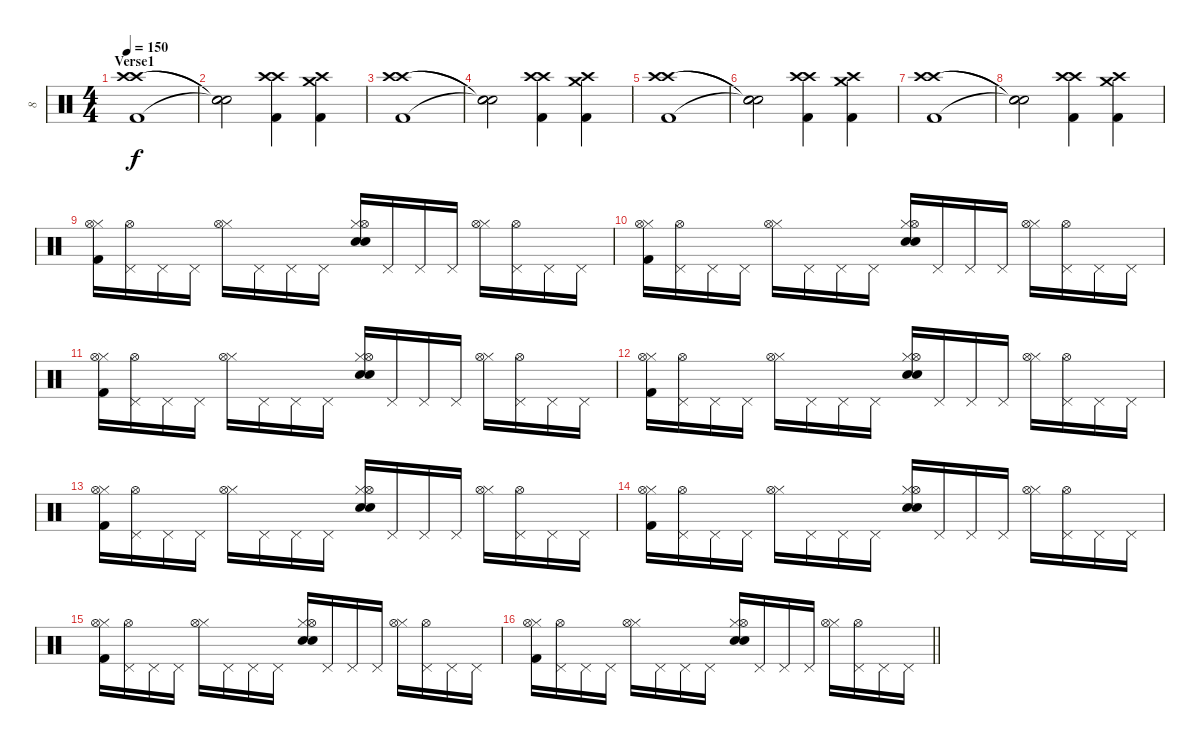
\track ("8" "8") {instrument percussion}
\staff {score}
\articulation defaults
\ts (4 4)
\section ("" "Verse1")
\tempo 150
\clef neutral
\ks c
("Crash high (hit)" "Crash high (hit)" "Kick (hit) 2").1{dy f} |
("Snare (hit)"{t} "Snare (hit)"{t} "Snare (hit)"{t}).2 ("Crash high (hit)" "Crash high (hit)" "Kick (hit) 2").4 ("Crash high (hit)" "Crash medium (hit)" "Kick (hit) 2").4 |
("Crash high (hit)" "Crash high (hit)" "Kick (hit) 2").1 |
("Snare (hit)"{t} "Snare (hit)"{t} "Snare (hit)"{t}).2 ("Crash high (hit)" "Crash high (hit)" "Kick (hit) 2").4 ("Crash high (hit)" "Crash medium (hit)" "Kick (hit) 2").4 |
("Crash high (hit)" "Crash high (hit)" "Kick (hit) 2").1 |
("Snare (hit)"{t} "Snare (hit)"{t} "Snare (hit)"{t}).2 ("Crash high (hit)" "Crash high (hit)" "Kick (hit) 2").4 ("Crash high (hit)" "Crash medium (hit)" "Kick (hit) 2").4 |
("Crash high (hit)" "Crash high (hit)" "Kick (hit) 2").1 |
("Snare (hit)"{t} "Snare (hit)"{t} "Snare (hit)"{t}).2 ("Crash high (hit)" "Crash high (hit)" "Kick (hit) 2").4 ("Crash high (hit)" "Crash medium (hit)" "Kick (hit) 2").4 |
("Hi-Hat (closed)" "Kick (hit) 2" "Hi-Hat (open)").16 ("Pedal Hi-Hat (hit)" "Hi-Hat (open)").16 "Pedal Hi-Hat (hit)".16 "Pedal Hi-Hat (hit)".16 ("Hi-Hat (closed)" "Hi-Hat (open)").16 "Pedal Hi-Hat (hit)".16 "Pedal Hi-Hat (hit)".16 "Pedal Hi-Hat (hit)".16 ("Snare (hit) 2" "Electric Snare (hit)" "Hi-Hat (closed)" "Hi-Hat (open)").16 "Pedal Hi-Hat (hit)".16 "Pedal Hi-Hat (hit)".16 "Pedal Hi-Hat (hit)".16 ("Hi-Hat (closed)" "Hi-Hat (open)").16 ("Pedal Hi-Hat (hit)" "Hi-Hat (open)").16 "Pedal Hi-Hat (hit)".16 "Pedal Hi-Hat (hit)".16 |
("Hi-Hat (closed)" "Kick (hit) 2" "Hi-Hat (open)").16 ("Pedal Hi-Hat (hit)" "Hi-Hat (open)").16 "Pedal Hi-Hat (hit)".16 "Pedal Hi-Hat (hit)".16 ("Hi-Hat (closed)" "Hi-Hat (open)").16 "Pedal Hi-Hat (hit)".16 "Pedal Hi-Hat (hit)".16 "Pedal Hi-Hat (hit)".16 ("Snare (hit) 2" "Electric Snare (hit)" "Hi-Hat (closed)" "Hi-Hat (open)").16 "Pedal Hi-Hat (hit)".16 "Pedal Hi-Hat (hit)".16 "Pedal Hi-Hat (hit)".16 ("Hi-Hat (closed)" "Hi-Hat (open)").16 ("Pedal Hi-Hat (hit)" "Hi-Hat (open)").16 "Pedal Hi-Hat (hit)".16 "Pedal Hi-Hat (hit)".16 |
("Hi-Hat (closed)" "Kick (hit) 2" "Hi-Hat (open)").16 ("Pedal Hi-Hat (hit)" "Hi-Hat (open)").16 "Pedal Hi-Hat (hit)".16 "Pedal Hi-Hat (hit)".16 ("Hi-Hat (closed)" "Hi-Hat (open)").16 "Pedal Hi-Hat (hit)".16 "Pedal Hi-Hat (hit)".16 "Pedal Hi-Hat (hit)".16 ("Snare (hit) 2" "Electric Snare (hit)" "Hi-Hat (closed)" "Hi-Hat (open)").16 "Pedal Hi-Hat (hit)".16 "Pedal Hi-Hat (hit)".16 "Pedal Hi-Hat (hit)".16 ("Hi-Hat (closed)" "Hi-Hat (open)").16 ("Pedal Hi-Hat (hit)" "Hi-Hat (open)").16 "Pedal Hi-Hat (hit)".16 "Pedal Hi-Hat (hit)".16 |
("Hi-Hat (closed)" "Kick (hit) 2" "Hi-Hat (open)").16 ("Pedal Hi-Hat (hit)" "Hi-Hat (open)").16 "Pedal Hi-Hat (hit)".16 "Pedal Hi-Hat (hit)".16 ("Hi-Hat (closed)" "Hi-Hat (open)").16 "Pedal Hi-Hat (hit)".16 "Pedal Hi-Hat (hit)".16 "Pedal Hi-Hat (hit)".16 ("Snare (hit) 2" "Electric Snare (hit)" "Hi-Hat (closed)" "Hi-Hat (open)").16 "Pedal Hi-Hat (hit)".16 "Pedal Hi-Hat (hit)".16 "Pedal Hi-Hat (hit)".16 ("Hi-Hat (closed)" "Hi-Hat (open)").16 ("Pedal Hi-Hat (hit)" "Hi-Hat (open)").16 "Pedal Hi-Hat (hit)".16 "Pedal Hi-Hat (hit)".16 |
("Hi-Hat (closed)" "Kick (hit) 2" "Hi-Hat (open)").16 ("Pedal Hi-Hat (hit)" "Hi-Hat (open)").16 "Pedal Hi-Hat (hit)".16 "Pedal Hi-Hat (hit)".16 ("Hi-Hat (closed)" "Hi-Hat (open)").16 "Pedal Hi-Hat (hit)".16 "Pedal Hi-Hat (hit)".16 "Pedal Hi-Hat (hit)".16 ("Snare (hit) 2" "Electric Snare (hit)" "Hi-Hat (closed)" "Hi-Hat (open)").16 "Pedal Hi-Hat (hit)".16 "Pedal Hi-Hat (hit)".16 "Pedal Hi-Hat (hit)".16 ("Hi-Hat (closed)" "Hi-Hat (open)").16 ("Pedal Hi-Hat (hit)" "Hi-Hat (open)").16 "Pedal Hi-Hat (hit)".16 "Pedal Hi-Hat (hit)".16 |
("Hi-Hat (closed)" "Kick (hit) 2" "Hi-Hat (open)").16 ("Pedal Hi-Hat (hit)" "Hi-Hat (open)").16 "Pedal Hi-Hat (hit)".16 "Pedal Hi-Hat (hit)".16 ("Hi-Hat (closed)" "Hi-Hat (open)").16 "Pedal Hi-Hat (hit)".16 "Pedal Hi-Hat (hit)".16 "Pedal Hi-Hat (hit)".16 ("Snare (hit) 2" "Electric Snare (hit)" "Hi-Hat (closed)" "Hi-Hat (open)").16 "Pedal Hi-Hat (hit)".16 "Pedal Hi-Hat (hit)".16 "Pedal Hi-Hat (hit)".16 ("Hi-Hat (closed)" "Hi-Hat (open)").16 ("Pedal Hi-Hat (hit)" "Hi-Hat (open)").16 "Pedal Hi-Hat (hit)".16 "Pedal Hi-Hat (hit)".16 |
("Hi-Hat (closed)" "Kick (hit) 2" "Hi-Hat (open)").16 ("Pedal Hi-Hat (hit)" "Hi-Hat (open)").16 "Pedal Hi-Hat (hit)".16 "Pedal Hi-Hat (hit)".16 ("Hi-Hat (closed)" "Hi-Hat (open)").16 "Pedal Hi-Hat (hit)".16 "Pedal Hi-Hat (hit)".16 "Pedal Hi-Hat (hit)".16 ("Snare (hit) 2" "Electric Snare (hit)" "Hi-Hat (closed)" "Hi-Hat (open)").16 "Pedal Hi-Hat (hit)".16 "Pedal Hi-Hat (hit)".16 "Pedal Hi-Hat (hit)".16 ("Hi-Hat (closed)" "Hi-Hat (open)").16 ("Pedal Hi-Hat (hit)" "Hi-Hat (open)").16 "Pedal Hi-Hat (hit)".16 "Pedal Hi-Hat (hit)".16 |
\barLineRight lightlight
("Hi-Hat (closed)" "Kick (hit) 2" "Hi-Hat (open)").16 ("Pedal Hi-Hat (hit)" "Hi-Hat (open)").16 "Pedal Hi-Hat (hit)".16 "Pedal Hi-Hat (hit)".16 ("Hi-Hat (closed)" "Hi-Hat (open)").16 "Pedal Hi-Hat (hit)".16 "Pedal Hi-Hat (hit)".16 "Pedal Hi-Hat (hit)".16 ("Snare (hit) 2" "Electric Snare (hit)" "Hi-Hat (closed)" "Hi-Hat (open)").16 "Pedal Hi-Hat (hit)".16 "Pedal Hi-Hat (hit)".16 "Pedal Hi-Hat (hit)".16 ("Hi-Hat (closed)" "Hi-Hat (open)").16 ("Pedal Hi-Hat (hit)" "Hi-Hat (open)").16 "Pedal Hi-Hat (hit)".16 "Pedal Hi-Hat (hit)".16
